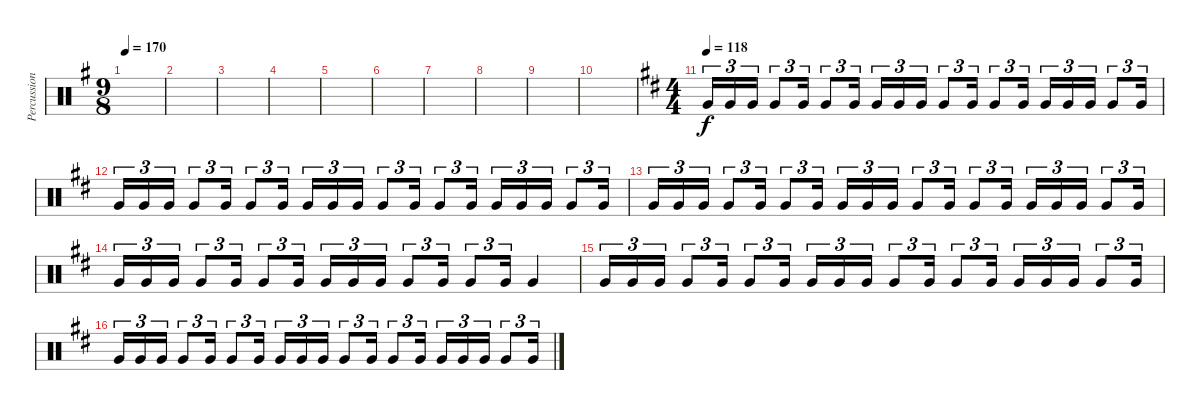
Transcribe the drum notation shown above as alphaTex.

\track ("Percussion" "Percussion") {instrument percussion}
\staff {score}
\articulation defaults
\ts (9 8)
\tempo 170
\clef neutral
\ks g
|
|
|
|
|
|
|
|
|
|
\ts (4 4)
\tempo 118
\ks d "Very Low Tom (hit)".16{tu (3 2)} "Very Low Tom (hit)".16{tu (3 2)} "Very Low Tom (hit)".16{tu (3 2)} "Very Low Tom (hit)".8{tu (3 2)} "Very Low Tom (hit)".16{tu (3 2)} "Very Low Tom (hit)".8{tu (3 2)} "Very Low Tom (hit)".16{tu (3 2) beam splitsecondary} "Very Low Tom (hit)".16{tu (3 2)} "Very Low Tom (hit)".16{tu (3 2)} "Very Low Tom (hit)".16{tu (3 2)} "Very Low Tom (hit)".8{tu (3 2)} "Very Low Tom (hit)".16{tu (3 2)} "Very Low Tom (hit)".8{tu (3 2)} "Very Low Tom (hit)".16{tu (3 2)} "Very Low Tom (hit)".16{tu (3 2)} "Very Low Tom (hit)".16{tu (3 2)} "Very Low Tom (hit)".16{tu (3 2)} "Very Low Tom (hit)".8{tu (3 2)} "Very Low Tom (hit)".16{tu (3 2)}
|
"Very Low Tom (hit)".16{tu (3 2)} "Very Low Tom (hit)".16{tu (3 2)} "Very Low Tom (hit)".16{tu (3 2)} "Very Low Tom (hit)".8{tu (3 2)} "Very Low Tom (hit)".16{tu (3 2)} "Very Low Tom (hit)".8{tu (3 2)} "Very Low Tom (hit)".16{tu (3 2) beam splitsecondary} "Very Low Tom (hit)".16{tu (3 2)} "Very Low Tom (hit)".16{tu (3 2)} "Very Low Tom (hit)".16{tu (3 2)} "Very Low Tom (hit)".8{tu (3 2)} "Very Low Tom (hit)".16{tu (3 2)} "Very Low Tom (hit)".8{tu (3 2)} "Very Low Tom (hit)".16{tu (3 2)} "Very Low Tom (hit)".16{tu (3 2)} "Very Low Tom (hit)".16{tu (3 2)} "Very Low Tom (hit)".16{tu (3 2)} "Very Low Tom (hit)".8{tu (3 2)} "Very Low Tom (hit)".16{tu (3 2)} |
"Very Low Tom (hit)".16{tu (3 2)} "Very Low Tom (hit)".16{tu (3 2)} "Very Low Tom (hit)".16{tu (3 2)} "Very Low Tom (hit)".8{tu (3 2)} "Very Low Tom (hit)".16{tu (3 2)} "Very Low Tom (hit)".8{tu (3 2)} "Very Low Tom (hit)".16{tu (3 2) beam splitsecondary} "Very Low Tom (hit)".16{tu (3 2)} "Very Low Tom (hit)".16{tu (3 2)} "Very Low Tom (hit)".16{tu (3 2)} "Very Low Tom (hit)".8{tu (3 2)} "Very Low Tom (hit)".16{tu (3 2)} "Very Low Tom (hit)".8{tu (3 2)} "Very Low Tom (hit)".16{tu (3 2)} "Very Low Tom (hit)".16{tu (3 2)} "Very Low Tom (hit)".16{tu (3 2)} "Very Low Tom (hit)".16{tu (3 2)} "Very Low Tom (hit)".8{tu (3 2)} "Very Low Tom (hit)".16{tu (3 2)} |
"Very Low Tom (hit)".16{tu (3 2)} "Very Low Tom (hit)".16{tu (3 2)} "Very Low Tom (hit)".16{tu (3 2)} "Very Low Tom (hit)".8{tu (3 2)} "Very Low Tom (hit)".16{tu (3 2)} "Very Low Tom (hit)".8{tu (3 2)} "Very Low Tom (hit)".16{tu (3 2) beam splitsecondary} "Very Low Tom (hit)".16{tu (3 2)} "Very Low Tom (hit)".16{tu (3 2)} "Very Low Tom (hit)".16{tu (3 2)} "Very Low Tom (hit)".8{tu (3 2)} "Very Low Tom (hit)".16{tu (3 2)} "Very Low Tom (hit)".8{tu (3 2)} "Very Low Tom (hit)".16{tu (3 2)} "Very Low Tom (hit)".4 |
"Very Low Tom (hit)".16{tu (3 2)} "Very Low Tom (hit)".16{tu (3 2)} "Very Low Tom (hit)".16{tu (3 2)} "Very Low Tom (hit)".8{tu (3 2)} "Very Low Tom (hit)".16{tu (3 2)} "Very Low Tom (hit)".8{tu (3 2)} "Very Low Tom (hit)".16{tu (3 2) beam splitsecondary} "Very Low Tom (hit)".16{tu (3 2)} "Very Low Tom (hit)".16{tu (3 2)} "Very Low Tom (hit)".16{tu (3 2)} "Very Low Tom (hit)".8{tu (3 2)} "Very Low Tom (hit)".16{tu (3 2)} "Very Low Tom (hit)".8{tu (3 2)} "Very Low Tom (hit)".16{tu (3 2)} "Very Low Tom (hit)".16{tu (3 2)} "Very Low Tom (hit)".16{tu (3 2)} "Very Low Tom (hit)".16{tu (3 2)} "Very Low Tom (hit)".8{tu (3 2)} "Very Low Tom (hit)".16{tu (3 2)} |
"Very Low Tom (hit)".16{tu (3 2)} "Very Low Tom (hit)".16{tu (3 2)} "Very Low Tom (hit)".16{tu (3 2)} "Very Low Tom (hit)".8{tu (3 2)} "Very Low Tom (hit)".16{tu (3 2)} "Very Low Tom (hit)".8{tu (3 2)} "Very Low Tom (hit)".16{tu (3 2) beam splitsecondary} "Very Low Tom (hit)".16{tu (3 2)} "Very Low Tom (hit)".16{tu (3 2)} "Very Low Tom (hit)".16{tu (3 2)} "Very Low Tom (hit)".8{tu (3 2)} "Very Low Tom (hit)".16{tu (3 2)} "Very Low Tom (hit)".8{tu (3 2)} "Very Low Tom (hit)".16{tu (3 2)} "Very Low Tom (hit)".16{tu (3 2)} "Very Low Tom (hit)".16{tu (3 2)} "Very Low Tom (hit)".16{tu (3 2)} "Very Low Tom (hit)".8{tu (3 2)} "Very Low Tom (hit)".16{tu (3 2)}
